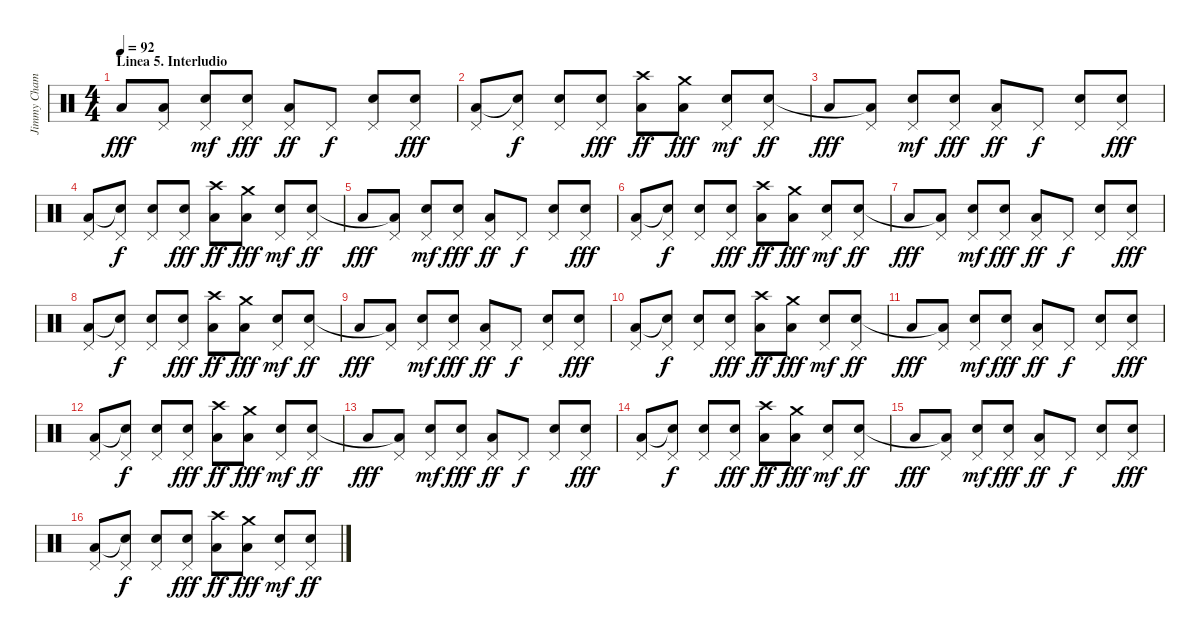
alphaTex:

\track ("Jimmy Chamberlin" "Jimmy Cham") {instrument percussion}
\staff {score}
\articulation defaults
\ts (4 4)
\section ("" "Linea 5. Interludio")
\tempo 92
\clef neutral
\ks c "Low Floor Tom (hit)".8{dy fff}
("Pedal Hi-Hat (hit)" "Low Floor Tom (hit)"{t}).8 ("Pedal Hi-Hat (hit)" "Snare (hit) 2").8{dy mf} ("Pedal Hi-Hat (hit)" "Snare (hit) 2").8{dy fff} ("Pedal Hi-Hat (hit)" "Low Tom (hit)").8{dy ff} "Pedal Hi-Hat (hit)".8{dy f} ("Pedal Hi-Hat (hit)" "Snare (hit) 2").8 ("Pedal Hi-Hat (hit)" "Snare (hit) 2").8{dy fff} |
("Pedal Hi-Hat (hit)" "Low Tom (hit)").8 ("Pedal Hi-Hat (hit)" "Snare (hit)"{t}).8{dy f} ("Pedal Hi-Hat (hit)" "Snare (hit) 2").8 ("Pedal Hi-Hat (hit)" "Snare (hit) 2").8{dy fff} ("Crash high (hit)" "Low Tom (hit)").8{dy ff} ("Crash medium (hit)" "Low Floor Tom (hit)").8{dy fff} ("Pedal Hi-Hat (hit)" "Snare (hit) 2").8{dy mf} ("Pedal Hi-Hat (hit)" "Snare (hit) 2").8{dy ff} |
"Low Floor Tom (hit)".8{dy fff} ("Pedal Hi-Hat (hit)" "Low Floor Tom (hit)"{t}).8 ("Pedal Hi-Hat (hit)" "Snare (hit) 2").8{dy mf} ("Pedal Hi-Hat (hit)" "Snare (hit) 2").8{dy fff} ("Pedal Hi-Hat (hit)" "Low Tom (hit)").8{dy ff} "Pedal Hi-Hat (hit)".8{dy f} ("Pedal Hi-Hat (hit)" "Snare (hit) 2").8 ("Pedal Hi-Hat (hit)" "Snare (hit) 2").8{dy fff} |
("Pedal Hi-Hat (hit)" "Low Tom (hit)").8 ("Pedal Hi-Hat (hit)" "Snare (hit)"{t}).8{dy f} ("Pedal Hi-Hat (hit)" "Snare (hit) 2").8 ("Pedal Hi-Hat (hit)" "Snare (hit) 2").8{dy fff} ("Crash high (hit)" "Low Tom (hit)").8{dy ff} ("Crash medium (hit)" "Low Floor Tom (hit)").8{dy fff} ("Pedal Hi-Hat (hit)" "Snare (hit) 2").8{dy mf} ("Pedal Hi-Hat (hit)" "Snare (hit) 2").8{dy ff} |
"Low Floor Tom (hit)".8{dy fff} ("Pedal Hi-Hat (hit)" "Low Floor Tom (hit)"{t}).8 ("Pedal Hi-Hat (hit)" "Snare (hit) 2").8{dy mf} ("Pedal Hi-Hat (hit)" "Snare (hit) 2").8{dy fff} ("Pedal Hi-Hat (hit)" "Low Tom (hit)").8{dy ff} "Pedal Hi-Hat (hit)".8{dy f} ("Pedal Hi-Hat (hit)" "Snare (hit) 2").8 ("Pedal Hi-Hat (hit)" "Snare (hit) 2").8{dy fff} |
("Pedal Hi-Hat (hit)" "Low Tom (hit)").8 ("Pedal Hi-Hat (hit)" "Snare (hit)"{t}).8{dy f} ("Pedal Hi-Hat (hit)" "Snare (hit) 2").8 ("Pedal Hi-Hat (hit)" "Snare (hit) 2").8{dy fff} ("Crash high (hit)" "Low Tom (hit)").8{dy ff} ("Crash medium (hit)" "Low Floor Tom (hit)").8{dy fff} ("Pedal Hi-Hat (hit)" "Snare (hit) 2").8{dy mf} ("Pedal Hi-Hat (hit)" "Snare (hit) 2").8{dy ff} |
"Low Floor Tom (hit)".8{dy fff} ("Pedal Hi-Hat (hit)" "Low Floor Tom (hit)"{t}).8 ("Pedal Hi-Hat (hit)" "Snare (hit) 2").8{dy mf} ("Pedal Hi-Hat (hit)" "Snare (hit) 2").8{dy fff} ("Pedal Hi-Hat (hit)" "Low Tom (hit)").8{dy ff} "Pedal Hi-Hat (hit)".8{dy f} ("Pedal Hi-Hat (hit)" "Snare (hit) 2").8 ("Pedal Hi-Hat (hit)" "Snare (hit) 2").8{dy fff} |
("Pedal Hi-Hat (hit)" "Low Tom (hit)").8 ("Pedal Hi-Hat (hit)" "Snare (hit)"{t}).8{dy f} ("Pedal Hi-Hat (hit)" "Snare (hit) 2").8 ("Pedal Hi-Hat (hit)" "Snare (hit) 2").8{dy fff} ("Crash high (hit)" "Low Tom (hit)").8{dy ff} ("Crash medium (hit)" "Low Floor Tom (hit)").8{dy fff} ("Pedal Hi-Hat (hit)" "Snare (hit) 2").8{dy mf} ("Pedal Hi-Hat (hit)" "Snare (hit) 2").8{dy ff} |
"Low Floor Tom (hit)".8{dy fff} ("Pedal Hi-Hat (hit)" "Low Floor Tom (hit)"{t}).8 ("Pedal Hi-Hat (hit)" "Snare (hit) 2").8{dy mf} ("Pedal Hi-Hat (hit)" "Snare (hit) 2").8{dy fff} ("Pedal Hi-Hat (hit)" "Low Tom (hit)").8{dy ff} "Pedal Hi-Hat (hit)".8{dy f} ("Pedal Hi-Hat (hit)" "Snare (hit) 2").8 ("Pedal Hi-Hat (hit)" "Snare (hit) 2").8{dy fff} |
("Pedal Hi-Hat (hit)" "Low Tom (hit)").8 ("Pedal Hi-Hat (hit)" "Snare (hit)"{t}).8{dy f} ("Pedal Hi-Hat (hit)" "Snare (hit) 2").8 ("Pedal Hi-Hat (hit)" "Snare (hit) 2").8{dy fff} ("Crash high (hit)" "Low Tom (hit)").8{dy ff} ("Crash medium (hit)" "Low Floor Tom (hit)").8{dy fff} ("Pedal Hi-Hat (hit)" "Snare (hit) 2").8{dy mf} ("Pedal Hi-Hat (hit)" "Snare (hit) 2").8{dy ff} |
"Low Floor Tom (hit)".8{dy fff} ("Pedal Hi-Hat (hit)" "Low Floor Tom (hit)"{t}).8 ("Pedal Hi-Hat (hit)" "Snare (hit) 2").8{dy mf} ("Pedal Hi-Hat (hit)" "Snare (hit) 2").8{dy fff} ("Pedal Hi-Hat (hit)" "Low Tom (hit)").8{dy ff} "Pedal Hi-Hat (hit)".8{dy f} ("Pedal Hi-Hat (hit)" "Snare (hit) 2").8 ("Pedal Hi-Hat (hit)" "Snare (hit) 2").8{dy fff} |
("Pedal Hi-Hat (hit)" "Low Tom (hit)").8 ("Pedal Hi-Hat (hit)" "Snare (hit)"{t}).8{dy f} ("Pedal Hi-Hat (hit)" "Snare (hit) 2").8 ("Pedal Hi-Hat (hit)" "Snare (hit) 2").8{dy fff} ("Crash high (hit)" "Low Tom (hit)").8{dy ff} ("Crash medium (hit)" "Low Floor Tom (hit)").8{dy fff} ("Pedal Hi-Hat (hit)" "Snare (hit) 2").8{dy mf} ("Pedal Hi-Hat (hit)" "Snare (hit) 2").8{dy ff} |
"Low Floor Tom (hit)".8{dy fff} ("Pedal Hi-Hat (hit)" "Low Floor Tom (hit)"{t}).8 ("Pedal Hi-Hat (hit)" "Snare (hit) 2").8{dy mf} ("Pedal Hi-Hat (hit)" "Snare (hit) 2").8{dy fff} ("Pedal Hi-Hat (hit)" "Low Tom (hit)").8{dy ff} "Pedal Hi-Hat (hit)".8{dy f} ("Pedal Hi-Hat (hit)" "Snare (hit) 2").8 ("Pedal Hi-Hat (hit)" "Snare (hit) 2").8{dy fff} |
("Pedal Hi-Hat (hit)" "Low Tom (hit)").8 ("Pedal Hi-Hat (hit)" "Snare (hit)"{t}).8{dy f} ("Pedal Hi-Hat (hit)" "Snare (hit) 2").8 ("Pedal Hi-Hat (hit)" "Snare (hit) 2").8{dy fff} ("Crash high (hit)" "Low Tom (hit)").8{dy ff} ("Crash medium (hit)" "Low Floor Tom (hit)").8{dy fff} ("Pedal Hi-Hat (hit)" "Snare (hit) 2").8{dy mf} ("Pedal Hi-Hat (hit)" "Snare (hit) 2").8{dy ff} |
"Low Floor Tom (hit)".8{dy fff} ("Pedal Hi-Hat (hit)" "Low Floor Tom (hit)"{t}).8 ("Pedal Hi-Hat (hit)" "Snare (hit) 2").8{dy mf} ("Pedal Hi-Hat (hit)" "Snare (hit) 2").8{dy fff} ("Pedal Hi-Hat (hit)" "Low Tom (hit)").8{dy ff} "Pedal Hi-Hat (hit)".8{dy f} ("Pedal Hi-Hat (hit)" "Snare (hit) 2").8 ("Pedal Hi-Hat (hit)" "Snare (hit) 2").8{dy fff} |
("Pedal Hi-Hat (hit)" "Low Tom (hit)").8 ("Pedal Hi-Hat (hit)" "Snare (hit)"{t}).8{dy f} ("Pedal Hi-Hat (hit)" "Snare (hit) 2").8 ("Pedal Hi-Hat (hit)" "Snare (hit) 2").8{dy fff} ("Crash high (hit)" "Low Tom (hit)").8{dy ff} ("Crash medium (hit)" "Low Floor Tom (hit)").8{dy fff} ("Pedal Hi-Hat (hit)" "Snare (hit) 2").8{dy mf} ("Pedal Hi-Hat (hit)" "Snare (hit) 2").8{dy ff}
